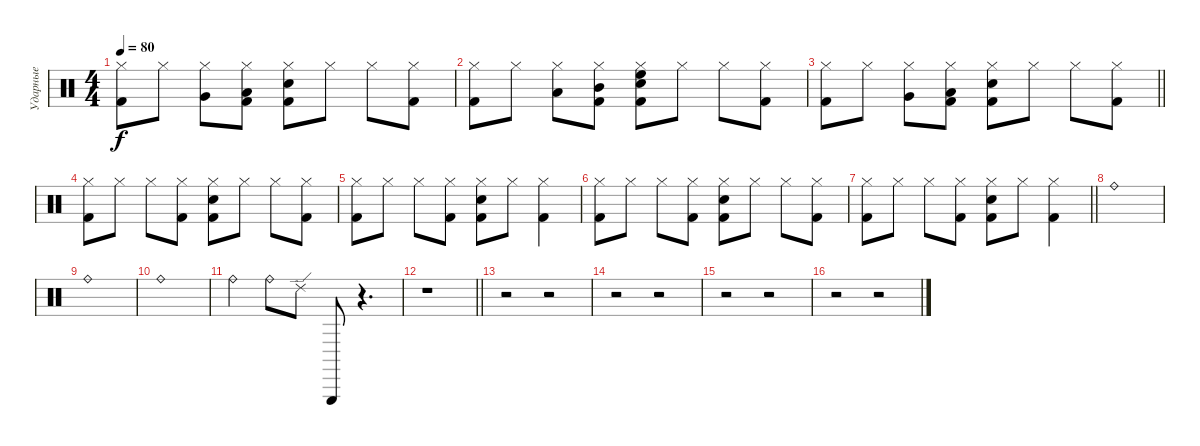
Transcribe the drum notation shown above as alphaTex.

\track ("Ударные" "Ударные") {instrument percussion}
\staff {score}
\articulation defaults
\ts (4 4)
\tempo 80
\clef neutral
\ks c
("Kick (hit) 2" "Hi-Hat (closed)").8{dy f} "Hi-Hat (closed)".8 ("Hi-Hat (closed)" "Very Low Tom (hit)").8 ("Kick (hit) 2" "Hi-Hat (closed)" "Low Floor Tom (hit)").8 ("Snare (hit) 2" "Kick (hit) 2" "Hi-Hat (closed)").8 "Hi-Hat (closed)".8 "Hi-Hat (closed)".8 ("Kick (hit) 2" "Hi-Hat (closed)").8 |
("Kick (hit) 2" "Hi-Hat (closed)").8 "Hi-Hat (closed)".8 ("Hi-Hat (closed)" "Low Tom (hit)").8 ("Kick (hit) 2" "Hi-Hat (closed)" "Mid Tom (hit)").8 ("Snare (hit) 2" "Kick (hit) 2" "Hi-Hat (closed)" "High Floor Tom (hit)").8 "Hi-Hat (closed)".8 "Hi-Hat (closed)".8 ("Kick (hit) 2" "Hi-Hat (closed)").8 |
\barLineRight lightlight
("Kick (hit) 2" "Hi-Hat (closed)").8 "Hi-Hat (closed)".8 ("Hi-Hat (closed)" "Very Low Tom (hit)").8 ("Kick (hit) 2" "Hi-Hat (closed)" "Low Floor Tom (hit)").8 ("Snare (hit) 2" "Kick (hit) 2" "Hi-Hat (closed)").8 "Hi-Hat (closed)".8 "Hi-Hat (closed)".8 ("Kick (hit) 2" "Hi-Hat (closed)").8 |
("Kick (hit) 2" "Hi-Hat (closed)").8 "Hi-Hat (closed)".8 "Hi-Hat (closed)".8 ("Kick (hit) 2" "Hi-Hat (closed)").8 ("Snare (hit) 2" "Kick (hit) 2" "Hi-Hat (closed)").8 "Hi-Hat (closed)".8 "Hi-Hat (closed)".8 ("Kick (hit) 2" "Hi-Hat (closed)").8 |
("Kick (hit) 2" "Hi-Hat (closed)").8 "Hi-Hat (closed)".8 "Hi-Hat (closed)".8 ("Kick (hit) 2" "Hi-Hat (closed)").8 ("Snare (hit) 2" "Kick (hit) 2" "Hi-Hat (closed)").8 "Hi-Hat (closed)".8 ("Kick (hit) 2" "Hi-Hat (closed)").4 |
("Kick (hit) 2" "Hi-Hat (closed)").8 "Hi-Hat (closed)".8 "Hi-Hat (closed)".8 ("Kick (hit) 2" "Hi-Hat (closed)").8 ("Snare (hit) 2" "Kick (hit) 2" "Hi-Hat (closed)").8 "Hi-Hat (closed)".8 "Hi-Hat (closed)".8 ("Kick (hit) 2" "Hi-Hat (closed)").8 |
\barLineRight lightlight
("Kick (hit) 2" "Hi-Hat (closed)").8 "Hi-Hat (closed)".8 "Hi-Hat (closed)".8 ("Kick (hit) 2" "Hi-Hat (closed)").8 ("Snare (hit) 2" "Kick (hit) 2" "Hi-Hat (closed)").8 "Hi-Hat (closed)".8 ("Kick (hit) 2" "Hi-Hat (closed)").4 |
"Ride (bell)".1 |
"Ride (bell)".1 |
"Ride (bell)".1 |
"Ride (bell)".4 "Ride (bell)".8 "Ride (edge) 2".8 "Triangle (hit)".8 r.4{d} |
\barLineRight lightlight
r.1 |
r.2 r.2 |
r.2 r.2 |
r.2 r.2 |
r.2 r.2
